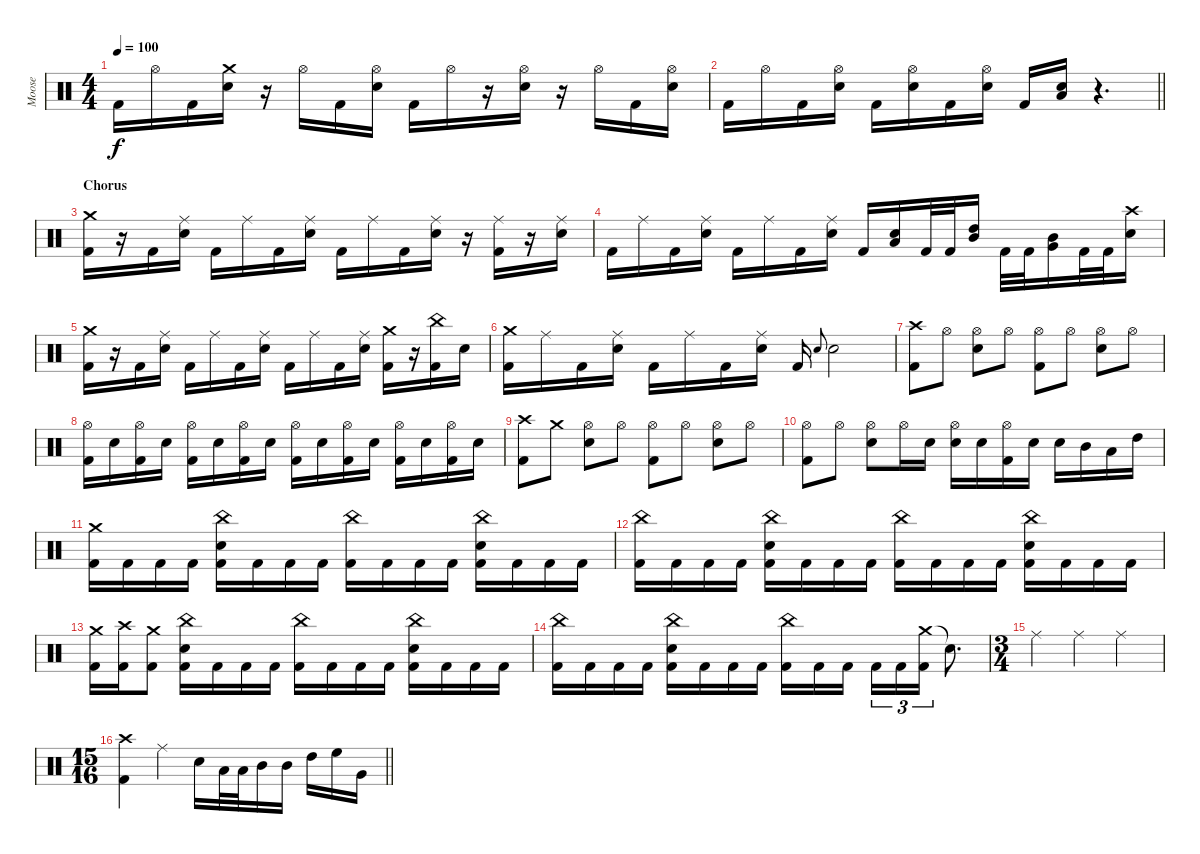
\track ("Moose" "Moose") {instrument percussion}
\staff {score}
\articulation defaults
\ts (4 4)
\tempo 100
\clef neutral
\ks c "Kick (hit) 2".16{dy f} "Hi-Hat (open)".16 "Kick (hit) 2".16
("Crash medium (hit)" "Electric Snare (hit)").16 r.16 "Hi-Hat (open)".16 "Kick (hit) 2".16 ("Hi-Hat (open)" "Electric Snare (hit)").16 "Kick (hit) 2".16 "Hi-Hat (open)".16 r.16 ("Hi-Hat (open)" "Electric Snare (hit)").16 r.16 "Hi-Hat (open)".16 "Kick (hit) 2".16 ("Hi-Hat (open)" "Electric Snare (hit)").16 |
\barLineRight lightlight "Kick (hit) 2".16 "Hi-Hat (open)".16 "Kick (hit) 2".16
("Hi-Hat (open)" "Electric Snare (hit)").16 "Kick (hit) 2".16 ("Hi-Hat (open)" "Electric Snare (hit)").16 "Kick (hit) 2".16 ("Hi-Hat (open)" "Electric Snare (hit)").16 "Kick (hit) 2".16 ("Low Tom (hit)" "Electric Snare (hit)").16 r.4{d} |
\section ("" "Chorus")
("Crash medium (hit)" "Kick (hit) 2").16 r.16 "Kick (hit) 2".16 ("Ride (middle)" "Electric Snare (hit)").16 "Kick (hit) 2".16 "Ride (middle)".16 "Kick (hit) 2".16 ("Ride (middle)" "Electric Snare (hit)").16 "Kick (hit) 2".16 "Ride (middle)".16 "Kick (hit) 2".16 ("Ride (middle)" "Electric Snare (hit)").16 r.16 ("Ride (middle)" "Kick (hit) 2").16 r.16 ("Ride (middle)" "Electric Snare (hit)").16 |
"Kick (hit) 2".16 "Ride (middle)".16 "Kick (hit) 2".16 ("Ride (middle)" "Electric Snare (hit)").16 "Kick (hit) 2".16 "Ride (middle)".16 "Kick (hit) 2".16 ("Ride (middle)" "Electric Snare (hit)").16 "Kick (hit) 2".16 ("Low Tom (hit)" "Electric Snare (hit)").16 "Kick (hit) 2".32 "Kick (hit) 2".32 ("Mid Tom (hit)" "High Tom (hit)").16 "Kick (hit) 2".32 "Kick (hit) 2".32 ("Very Low Tom (hit)" "Mid Tom (hit)").16 "Kick (hit) 2".32 "Kick (hit) 2".32 ("Crash high (hit)" "Electric Snare (hit)").16 |
("Crash medium (hit)" "Kick (hit) 2").16 r.16 "Kick (hit) 2".16 ("Ride (middle)" "Electric Snare (hit)").16 "Kick (hit) 2".16 "Ride (middle)".16 "Kick (hit) 2".16 ("Ride (middle)" "Electric Snare (hit)").16 "Kick (hit) 2".16 "Ride (middle)".16 "Kick (hit) 2".16 ("Ride (middle)" "Electric Snare (hit)").16 ("Crash medium (hit)" "Kick (hit) 2").16 r.16 ("China (hit)" "Kick (hit) 2").16 "Electric Snare (hit)".16 |
("Crash medium (hit)" "Kick (hit) 2").16 "Ride (middle)".16 "Kick (hit) 2".16 ("Ride (middle)" "Electric Snare (hit)").16 "Kick (hit) 2".16 "Ride (middle)".16 "Kick (hit) 2".16 ("Ride (middle)" "Electric Snare (hit)").16 "Kick (hit) 2".16 "Electric Snare (hit)".8{gr onbeat} "Electric Snare (hit)".2 |
("Crash high (hit)" "Kick (hit) 2").8 "Hi-Hat (open)".8 ("Hi-Hat (open)" "Electric Snare (hit)").8 "Hi-Hat (open)".8 ("Hi-Hat (open)" "Kick (hit) 2").8 "Hi-Hat (open)".8 ("Hi-Hat (open)" "Electric Snare (hit)").8 "Hi-Hat (open)".8 |
("Hi-Hat (open)" "Kick (hit) 2").16 "Electric Snare (hit)".16 ("Hi-Hat (open)" "Kick (hit) 2").16 "Electric Snare (hit)".16 ("Hi-Hat (open)" "Kick (hit) 2").16 "Electric Snare (hit)".16 ("Hi-Hat (open)" "Kick (hit) 2").16 "Electric Snare (hit)".16 ("Hi-Hat (open)" "Kick (hit) 2").16 "Electric Snare (hit)".16 ("Hi-Hat (open)" "Kick (hit) 2").16 "Electric Snare (hit)".16 ("Hi-Hat (open)" "Kick (hit) 2").16 "Electric Snare (hit)".16 ("Hi-Hat (open)" "Kick (hit) 2").16 "Electric Snare (hit)".16 |
("Crash high (hit)" "Kick (hit) 2").8 "Crash medium (hit)".8 ("Hi-Hat (open)" "Electric Snare (hit)").8 "Hi-Hat (open)".8 ("Hi-Hat (open)" "Kick (hit) 2").8 "Hi-Hat (open)".8 ("Hi-Hat (open)" "Electric Snare (hit)").8 "Hi-Hat (open)".8 |
("Hi-Hat (open)" "Kick (hit) 2").8 "Hi-Hat (open)".8 ("Hi-Hat (open)" "Electric Snare (hit)").8 "Hi-Hat (open)".16 "Electric Snare (hit)".16 ("Hi-Hat (open)" "Electric Snare (hit)").16 "Electric Snare (hit)".16 ("Hi-Hat (open)" "Kick (hit) 2").16 "Electric Snare (hit)".16 "Electric Snare (hit)".16 "Mid Tom (hit)".16 "Low Tom (hit)".16 "High Tom (hit)".16 |
("Crash medium (hit)" "Kick (hit) 2").16 "Kick (hit) 2".16 "Kick (hit) 2".16 "Kick (hit) 2".16 ("China (hit)" "Electric Snare (hit)" "Kick (hit) 2").16 "Kick (hit) 2".16 "Kick (hit) 2".16 "Kick (hit) 2".16 ("China (hit)" "Kick (hit) 2").16 "Kick (hit) 2".16 "Kick (hit) 2".16 "Kick (hit) 2".16 ("China (hit)" "Electric Snare (hit)" "Kick (hit) 2").16 "Kick (hit) 2".16 "Kick (hit) 2".16 "Kick (hit) 2".16 |
("China (hit)" "Kick (hit) 2").16 "Kick (hit) 2".16 "Kick (hit) 2".16 "Kick (hit) 2".16 ("China (hit)" "Electric Snare (hit)" "Kick (hit) 2").16 "Kick (hit) 2".16 "Kick (hit) 2".16 "Kick (hit) 2".16 ("China (hit)" "Kick (hit) 2").16 "Kick (hit) 2".16 "Kick (hit) 2".16 "Kick (hit) 2".16 ("China (hit)" "Electric Snare (hit)" "Kick (hit) 2").16 "Kick (hit) 2".16 "Kick (hit) 2".16 "Kick (hit) 2".16 |
("Crash medium (hit)" "Kick (hit) 2").16 ("Crash high (hit)" "Kick (hit) 2").16 ("Crash medium (hit)" "Kick (hit) 2").8 ("China (hit)" "Electric Snare (hit)" "Kick (hit) 2").16 "Kick (hit) 2".16 "Kick (hit) 2".16 "Kick (hit) 2".16 ("China (hit)" "Kick (hit) 2").16 "Kick (hit) 2".16 "Kick (hit) 2".16 "Kick (hit) 2".16 ("China (hit)" "Electric Snare (hit)" "Kick (hit) 2").16 "Kick (hit) 2".16 "Kick (hit) 2".16 "Kick (hit) 2".16 |
("China (hit)" "Kick (hit) 2").16 "Kick (hit) 2".16 "Kick (hit) 2".16 "Kick (hit) 2".16 ("China (hit)" "Electric Snare (hit)" "Kick (hit) 2").16 "Kick (hit) 2".16 "Kick (hit) 2".16 "Kick (hit) 2".16 ("China (hit)" "Kick (hit) 2").16 "Kick (hit) 2".16 "Kick (hit) 2".16{beam splitsecondary} "Kick (hit) 2".16{tu (3 2)} "Kick (hit) 2".16{tu (3 2)} ("Crash medium (hit)" "Kick (hit) 2").16{tu (3 2)} "Snare (hit)"{t}.8{d} |
\ts (3 4)
"Ride (middle)".4 "Ride (middle)".4 "Ride (middle)".4 |
\ts (15 16)
\barLineRight lightlight
("Crash high (hit)" "Kick (hit) 2").4 "Ride (middle)".4 "Electric Snare (hit)".16 "Low Tom (hit)".32 "Low Tom (hit)".32 "Mid Tom (hit)".16 "Mid Tom (hit)".16 "High Tom (hit)".16 "High Floor Tom (hit)".16 "Very Low Tom (hit)".16
